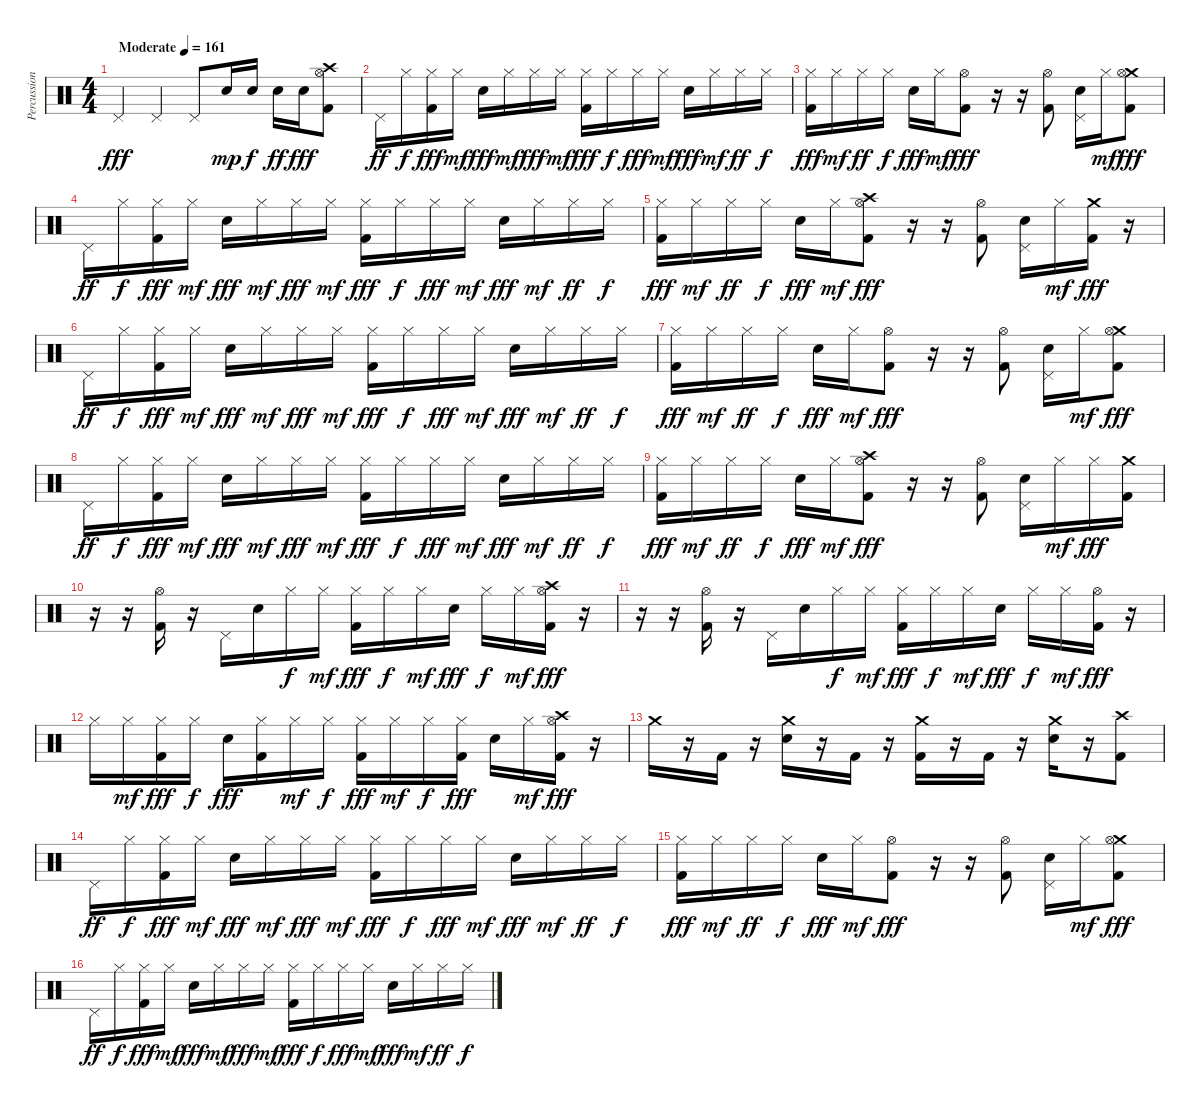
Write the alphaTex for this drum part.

\track ("Percussion" "Percussion") {instrument percussion}
\staff {score}
\articulation defaults
\ts (4 4)
\tempo (161 "Moderate")
\clef neutral
\ks c "Pedal Hi-Hat (hit)".4{dy fff} "Pedal Hi-Hat (hit)".4 "Pedal Hi-Hat (hit)".8 "Electric Snare (hit)".16{dy mp} "Electric Snare (hit)".16{dy f} "Electric Snare (hit)".16{dy ff} "Electric Snare (hit)".16{dy fff}
("Crash high (hit)" "Hi-Hat (open)" "Kick (hit) 2").8 |
"Pedal Hi-Hat (hit)".16{dy ff} "Hi-Hat (closed)".16{dy f} ("Hi-Hat (closed)" "Kick (hit) 2").16{dy fff} "Hi-Hat (closed)".16{dy mf} "Electric Snare (hit)".16{dy fff} "Hi-Hat (closed)".16{dy mf} "Hi-Hat (closed)".16{dy fff} "Hi-Hat (closed)".16{dy mf} ("Hi-Hat (closed)" "Kick (hit) 2").16{dy fff} "Hi-Hat (closed)".16{dy f} "Hi-Hat (closed)".16{dy fff} "Hi-Hat (closed)".16{dy mf} "Electric Snare (hit)".16{dy fff} "Hi-Hat (closed)".16{dy mf} "Hi-Hat (closed)".16{dy ff} "Hi-Hat (closed)".16{dy f} |
("Hi-Hat (closed)" "Kick (hit) 2").16{dy fff} "Hi-Hat (closed)".16{dy mf} "Hi-Hat (closed)".16{dy ff} "Hi-Hat (closed)".16{dy f} "Electric Snare (hit)".16{dy fff} "Hi-Hat (closed)".16{dy mf} ("Hi-Hat (open)" "Kick (hit) 2").8{dy fff} r.16 r.16 ("Hi-Hat (open)" "Kick (hit) 2").8 ("Pedal Hi-Hat (hit)" "Electric Snare (hit)").16 "Hi-Hat (closed)".16{dy mf} ("Crash medium (hit)" "Hi-Hat (open)" "Kick (hit) 2").8{dy fff} |
"Pedal Hi-Hat (hit)".16{dy ff} "Hi-Hat (closed)".16{dy f} ("Hi-Hat (closed)" "Kick (hit) 2").16{dy fff} "Hi-Hat (closed)".16{dy mf} "Electric Snare (hit)".16{dy fff} "Hi-Hat (closed)".16{dy mf} "Hi-Hat (closed)".16{dy fff} "Hi-Hat (closed)".16{dy mf} ("Hi-Hat (closed)" "Kick (hit) 2").16{dy fff} "Hi-Hat (closed)".16{dy f} "Hi-Hat (closed)".16{dy fff} "Hi-Hat (closed)".16{dy mf} "Electric Snare (hit)".16{dy fff} "Hi-Hat (closed)".16{dy mf} "Hi-Hat (closed)".16{dy ff} "Hi-Hat (closed)".16{dy f} |
("Hi-Hat (closed)" "Kick (hit) 2").16{dy fff} "Hi-Hat (closed)".16{dy mf} "Hi-Hat (closed)".16{dy ff} "Hi-Hat (closed)".16{dy f} "Electric Snare (hit)".16{dy fff} "Hi-Hat (closed)".16{dy mf} ("Crash high (hit)" "Hi-Hat (open)" "Kick (hit) 2").8{dy fff} r.16 r.16 ("Hi-Hat (open)" "Kick (hit) 2").8 ("Pedal Hi-Hat (hit)" "Electric Snare (hit)").16 "Hi-Hat (closed)".16{dy mf} ("Crash medium (hit)" "Kick (hit) 2").16{dy fff} r.16 |
"Pedal Hi-Hat (hit)".16{dy ff} "Hi-Hat (closed)".16{dy f} ("Hi-Hat (closed)" "Kick (hit) 2").16{dy fff} "Hi-Hat (closed)".16{dy mf} "Electric Snare (hit)".16{dy fff} "Hi-Hat (closed)".16{dy mf} "Hi-Hat (closed)".16{dy fff} "Hi-Hat (closed)".16{dy mf} ("Hi-Hat (closed)" "Kick (hit) 2").16{dy fff} "Hi-Hat (closed)".16{dy f} "Hi-Hat (closed)".16{dy fff} "Hi-Hat (closed)".16{dy mf} "Electric Snare (hit)".16{dy fff} "Hi-Hat (closed)".16{dy mf} "Hi-Hat (closed)".16{dy ff} "Hi-Hat (closed)".16{dy f} |
("Hi-Hat (closed)" "Kick (hit) 2").16{dy fff} "Hi-Hat (closed)".16{dy mf} "Hi-Hat (closed)".16{dy ff} "Hi-Hat (closed)".16{dy f} "Electric Snare (hit)".16{dy fff} "Hi-Hat (closed)".16{dy mf} ("Hi-Hat (open)" "Kick (hit) 2").8{dy fff} r.16 r.16 ("Hi-Hat (open)" "Kick (hit) 2").8 ("Pedal Hi-Hat (hit)" "Electric Snare (hit)").16 "Hi-Hat (closed)".16{dy mf} ("Crash medium (hit)" "Hi-Hat (open)" "Kick (hit) 2").8{dy fff} |
"Pedal Hi-Hat (hit)".16{dy ff} "Hi-Hat (closed)".16{dy f} ("Hi-Hat (closed)" "Kick (hit) 2").16{dy fff} "Hi-Hat (closed)".16{dy mf} "Electric Snare (hit)".16{dy fff} "Hi-Hat (closed)".16{dy mf} "Hi-Hat (closed)".16{dy fff} "Hi-Hat (closed)".16{dy mf} ("Hi-Hat (closed)" "Kick (hit) 2").16{dy fff} "Hi-Hat (closed)".16{dy f} "Hi-Hat (closed)".16{dy fff} "Hi-Hat (closed)".16{dy mf} "Electric Snare (hit)".16{dy fff} "Hi-Hat (closed)".16{dy mf} "Hi-Hat (closed)".16{dy ff} "Hi-Hat (closed)".16{dy f} |
("Hi-Hat (closed)" "Kick (hit) 2").16{dy fff} "Hi-Hat (closed)".16{dy mf} "Hi-Hat (closed)".16{dy ff} "Hi-Hat (closed)".16{dy f} "Electric Snare (hit)".16{dy fff} "Hi-Hat (closed)".16{dy mf} ("Crash high (hit)" "Hi-Hat (open)" "Kick (hit) 2").8{dy fff} r.16 r.16 ("Hi-Hat (open)" "Kick (hit) 2").8 ("Pedal Hi-Hat (hit)" "Electric Snare (hit)").16 "Hi-Hat (closed)".16{dy mf} "Hi-Hat (closed)".16{dy fff} ("Crash medium (hit)" "Kick (hit) 2").16 |
r.16 r.16 ("Hi-Hat (open)" "Kick (hit) 2").16 r.16 "Pedal Hi-Hat (hit)".16 "Electric Snare (hit)".16 "Hi-Hat (closed)".16{dy f} "Hi-Hat (closed)".16{dy mf} ("Hi-Hat (closed)" "Kick (hit) 2").16{dy fff} "Hi-Hat (closed)".16{dy f} "Hi-Hat (closed)".16{dy mf} "Electric Snare (hit)".16{dy fff} "Hi-Hat (closed)".16{dy f} "Hi-Hat (closed)".16{dy mf} ("Crash high (hit)" "Hi-Hat (open)" "Kick (hit) 2").16{dy fff} r.16 |
r.16 r.16 ("Hi-Hat (open)" "Kick (hit) 2").16 r.16 "Pedal Hi-Hat (hit)".16 "Electric Snare (hit)".16 "Hi-Hat (closed)".16{dy f} "Hi-Hat (closed)".16{dy mf} ("Hi-Hat (closed)" "Kick (hit) 2").16{dy fff} "Hi-Hat (closed)".16{dy f} "Hi-Hat (closed)".16{dy mf} "Electric Snare (hit)".16{dy fff} "Hi-Hat (closed)".16{dy f} "Hi-Hat (closed)".16{dy mf} ("Hi-Hat (open)" "Kick (hit) 2").16{dy fff} r.16 |
"Hi-Hat (closed)".16 "Hi-Hat (closed)".16{dy mf} ("Hi-Hat (closed)" "Kick (hit) 2").16{dy fff} "Hi-Hat (closed)".16{dy f} "Electric Snare (hit)".16{dy fff} ("Hi-Hat (closed)" "Kick (hit) 2").16 "Hi-Hat (closed)".16{dy mf} "Hi-Hat (closed)".16{dy f} ("Hi-Hat (closed)" "Kick (hit) 2").16{dy fff} "Hi-Hat (closed)".16{dy mf} "Hi-Hat (closed)".16{dy f} ("Hi-Hat (closed)" "Kick (hit) 2").16{dy fff} "Electric Snare (hit)".16 "Hi-Hat (closed)".16{dy mf} ("Crash high (hit)" "Hi-Hat (open)" "Kick (hit) 2").16{dy fff} r.16 |
"Crash medium (hit)".16 r.16 "Kick (hit) 2".16 r.16 ("Crash medium (hit)" "Electric Snare (hit)").16 r.16 "Kick (hit) 2".16 r.16 ("Crash medium (hit)" "Kick (hit) 2").16 r.16 "Kick (hit) 2".16 r.16 ("Crash medium (hit)" "Electric Snare (hit)").16 r.16 ("Crash high (hit)" "Kick (hit) 2").8 |
"Pedal Hi-Hat (hit)".16{dy ff} "Hi-Hat (closed)".16{dy f} ("Hi-Hat (closed)" "Kick (hit) 2").16{dy fff} "Hi-Hat (closed)".16{dy mf} "Electric Snare (hit)".16{dy fff} "Hi-Hat (closed)".16{dy mf} "Hi-Hat (closed)".16{dy fff} "Hi-Hat (closed)".16{dy mf} ("Hi-Hat (closed)" "Kick (hit) 2").16{dy fff} "Hi-Hat (closed)".16{dy f} "Hi-Hat (closed)".16{dy fff} "Hi-Hat (closed)".16{dy mf} "Electric Snare (hit)".16{dy fff} "Hi-Hat (closed)".16{dy mf} "Hi-Hat (closed)".16{dy ff} "Hi-Hat (closed)".16{dy f} |
("Hi-Hat (closed)" "Kick (hit) 2").16{dy fff} "Hi-Hat (closed)".16{dy mf} "Hi-Hat (closed)".16{dy ff} "Hi-Hat (closed)".16{dy f} "Electric Snare (hit)".16{dy fff} "Hi-Hat (closed)".16{dy mf} ("Hi-Hat (open)" "Kick (hit) 2").8{dy fff} r.16 r.16 ("Hi-Hat (open)" "Kick (hit) 2").8 ("Pedal Hi-Hat (hit)" "Electric Snare (hit)").16 "Hi-Hat (closed)".16{dy mf} ("Crash medium (hit)" "Hi-Hat (open)" "Kick (hit) 2").8{dy fff} |
"Pedal Hi-Hat (hit)".16{dy ff} "Hi-Hat (closed)".16{dy f} ("Hi-Hat (closed)" "Kick (hit) 2").16{dy fff} "Hi-Hat (closed)".16{dy mf} "Electric Snare (hit)".16{dy fff} "Hi-Hat (closed)".16{dy mf} "Hi-Hat (closed)".16{dy fff} "Hi-Hat (closed)".16{dy mf} ("Hi-Hat (closed)" "Kick (hit) 2").16{dy fff} "Hi-Hat (closed)".16{dy f} "Hi-Hat (closed)".16{dy fff} "Hi-Hat (closed)".16{dy mf} "Electric Snare (hit)".16{dy fff} "Hi-Hat (closed)".16{dy mf} "Hi-Hat (closed)".16{dy ff} "Hi-Hat (closed)".16{dy f}
